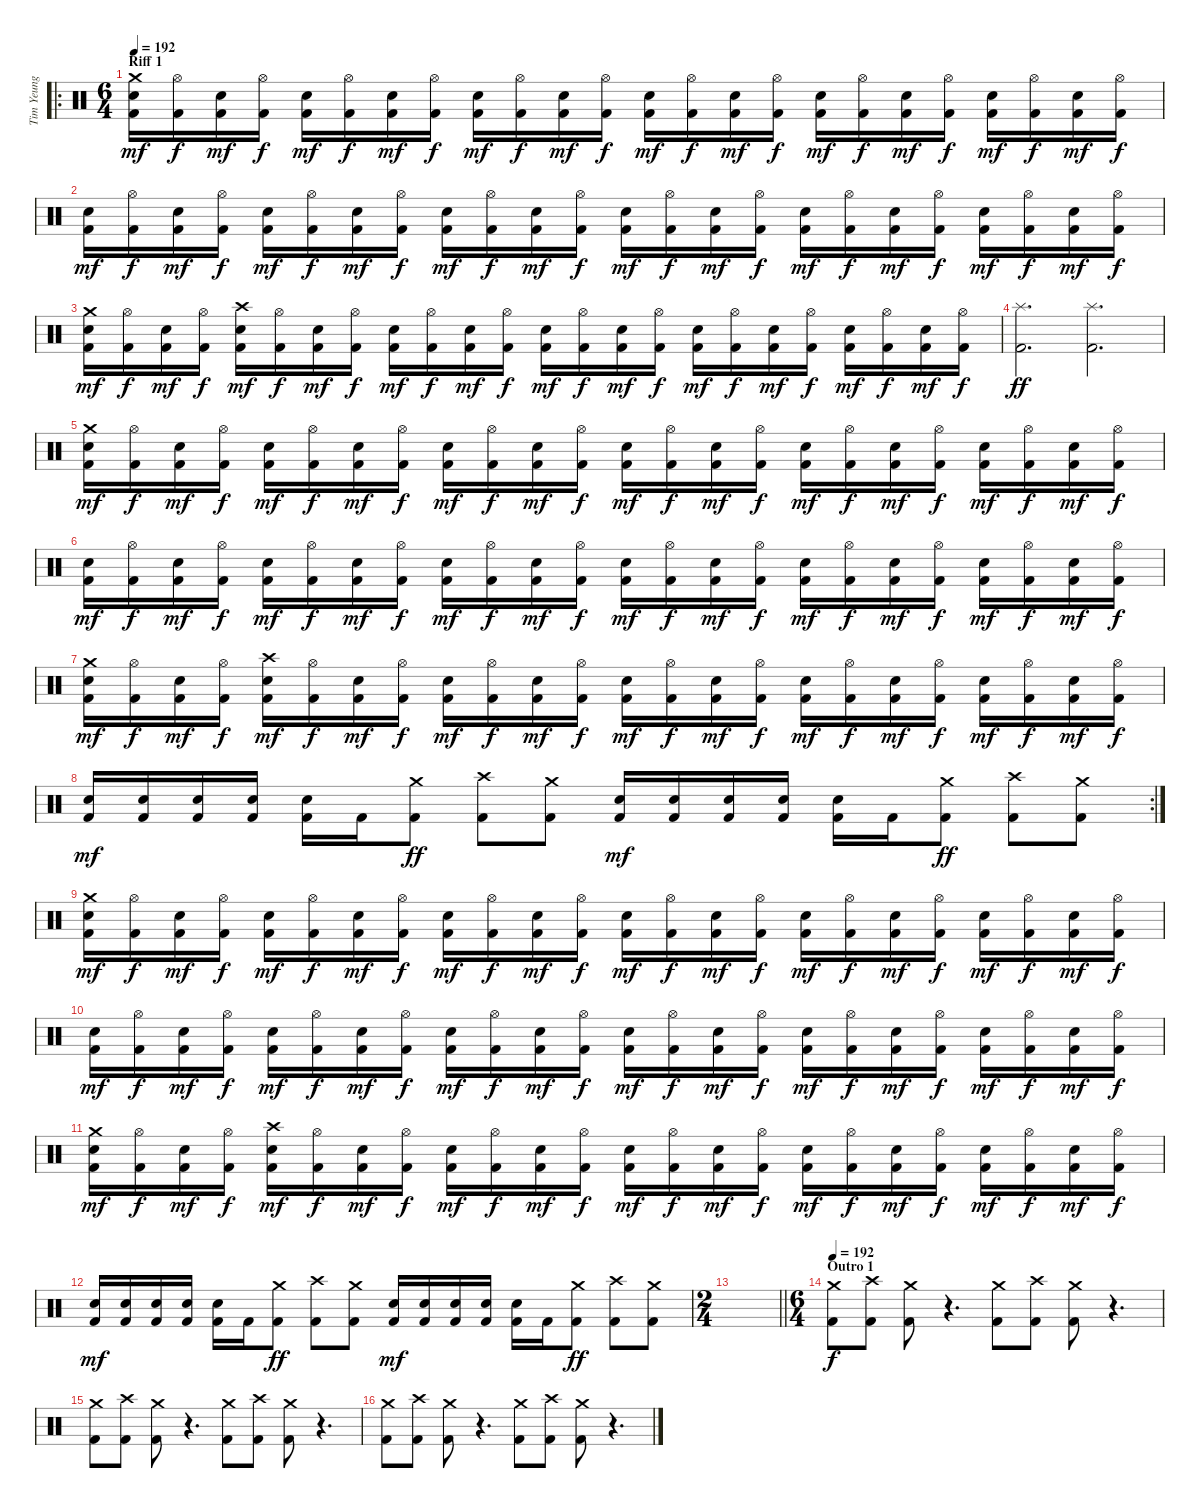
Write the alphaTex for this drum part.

\track ("Tim Yeung" "Tim Yeung") {instrument percussion}
\staff {score}
\articulation defaults
\ro
\ts (6 4)
\section ("" "Riff 1")
\tempo 192
\clef neutral
\ks c
("Crash medium (hit)" "Snare (hit) 2" "Kick (hit) 2").16{dy mf} ("Hi-Hat (open)" "Kick (hit) 2").16{dy f} ("Snare (hit) 2" "Kick (hit) 2").16{dy mf} ("Hi-Hat (open)" "Kick (hit) 2").16{dy f} ("Snare (hit) 2" "Kick (hit) 2").16{dy mf} ("Hi-Hat (open)" "Kick (hit) 2").16{dy f} ("Snare (hit) 2" "Kick (hit) 2").16{dy mf} ("Hi-Hat (open)" "Kick (hit) 2").16{dy f} ("Snare (hit) 2" "Kick (hit) 2").16{dy mf} ("Hi-Hat (open)" "Kick (hit) 2").16{dy f} ("Snare (hit) 2" "Kick (hit) 2").16{dy mf} ("Hi-Hat (open)" "Kick (hit) 2").16{dy f} ("Snare (hit) 2" "Kick (hit) 2").16{dy mf} ("Hi-Hat (open)" "Kick (hit) 2").16{dy f} ("Snare (hit) 2" "Kick (hit) 2").16{dy mf} ("Hi-Hat (open)" "Kick (hit) 2").16{dy f} ("Snare (hit) 2" "Kick (hit) 2").16{dy mf} ("Hi-Hat (open)" "Kick (hit) 2").16{dy f} ("Snare (hit) 2" "Kick (hit) 2").16{dy mf} ("Hi-Hat (open)" "Kick (hit) 2").16{dy f} ("Snare (hit) 2" "Kick (hit) 2").16{dy mf} ("Hi-Hat (open)" "Kick (hit) 2").16{dy f} ("Snare (hit) 2" "Kick (hit) 2").16{dy mf} ("Hi-Hat (open)" "Kick (hit) 2").16{dy f} |
("Snare (hit) 2" "Kick (hit) 2").16{dy mf} ("Hi-Hat (open)" "Kick (hit) 2").16{dy f} ("Snare (hit) 2" "Kick (hit) 2").16{dy mf} ("Hi-Hat (open)" "Kick (hit) 2").16{dy f} ("Snare (hit) 2" "Kick (hit) 2").16{dy mf} ("Hi-Hat (open)" "Kick (hit) 2").16{dy f} ("Snare (hit) 2" "Kick (hit) 2").16{dy mf} ("Hi-Hat (open)" "Kick (hit) 2").16{dy f} ("Snare (hit) 2" "Kick (hit) 2").16{dy mf} ("Hi-Hat (open)" "Kick (hit) 2").16{dy f} ("Snare (hit) 2" "Kick (hit) 2").16{dy mf} ("Hi-Hat (open)" "Kick (hit) 2").16{dy f} ("Snare (hit) 2" "Kick (hit) 2").16{dy mf} ("Hi-Hat (open)" "Kick (hit) 2").16{dy f} ("Snare (hit) 2" "Kick (hit) 2").16{dy mf} ("Hi-Hat (open)" "Kick (hit) 2").16{dy f} ("Snare (hit) 2" "Kick (hit) 2").16{dy mf} ("Hi-Hat (open)" "Kick (hit) 2").16{dy f} ("Snare (hit) 2" "Kick (hit) 2").16{dy mf} ("Hi-Hat (open)" "Kick (hit) 2").16{dy f} ("Snare (hit) 2" "Kick (hit) 2").16{dy mf} ("Hi-Hat (open)" "Kick (hit) 2").16{dy f} ("Snare (hit) 2" "Kick (hit) 2").16{dy mf} ("Hi-Hat (open)" "Kick (hit) 2").16{dy f} |
("Crash medium (hit)" "Snare (hit) 2" "Kick (hit) 2").16{dy mf} ("Hi-Hat (open)" "Kick (hit) 2").16{dy f} ("Snare (hit) 2" "Kick (hit) 2").16{dy mf} ("Hi-Hat (open)" "Kick (hit) 2").16{dy f} ("Crash high (hit)" "Snare (hit) 2" "Kick (hit) 2").16{dy mf} ("Hi-Hat (open)" "Kick (hit) 2").16{dy f} ("Snare (hit) 2" "Kick (hit) 2").16{dy mf} ("Hi-Hat (open)" "Kick (hit) 2").16{dy f} ("Snare (hit) 2" "Kick (hit) 2").16{dy mf} ("Hi-Hat (open)" "Kick (hit) 2").16{dy f} ("Snare (hit) 2" "Kick (hit) 2").16{dy mf} ("Hi-Hat (open)" "Kick (hit) 2").16{dy f} ("Snare (hit) 2" "Kick (hit) 2").16{dy mf} ("Hi-Hat (open)" "Kick (hit) 2").16{dy f} ("Snare (hit) 2" "Kick (hit) 2").16{dy mf} ("Hi-Hat (open)" "Kick (hit) 2").16{dy f} ("Snare (hit) 2" "Kick (hit) 2").16{dy mf} ("Hi-Hat (open)" "Kick (hit) 2").16{dy f} ("Snare (hit) 2" "Kick (hit) 2").16{dy mf} ("Hi-Hat (open)" "Kick (hit) 2").16{dy f} ("Snare (hit) 2" "Kick (hit) 2").16{dy mf} ("Hi-Hat (open)" "Kick (hit) 2").16{dy f} ("Snare (hit) 2" "Kick (hit) 2").16{dy mf} ("Hi-Hat (open)" "Kick (hit) 2").16{dy f} |
("Splash (hit)" "Kick (hit) 2").2{d dy ff} ("Splash (hit)" "Kick (hit) 2").2{d} |
("Crash medium (hit)" "Snare (hit) 2" "Kick (hit) 2").16{dy mf} ("Hi-Hat (open)" "Kick (hit) 2").16{dy f} ("Snare (hit) 2" "Kick (hit) 2").16{dy mf} ("Hi-Hat (open)" "Kick (hit) 2").16{dy f} ("Snare (hit) 2" "Kick (hit) 2").16{dy mf} ("Hi-Hat (open)" "Kick (hit) 2").16{dy f} ("Snare (hit) 2" "Kick (hit) 2").16{dy mf} ("Hi-Hat (open)" "Kick (hit) 2").16{dy f} ("Snare (hit) 2" "Kick (hit) 2").16{dy mf} ("Hi-Hat (open)" "Kick (hit) 2").16{dy f} ("Snare (hit) 2" "Kick (hit) 2").16{dy mf} ("Hi-Hat (open)" "Kick (hit) 2").16{dy f} ("Snare (hit) 2" "Kick (hit) 2").16{dy mf} ("Hi-Hat (open)" "Kick (hit) 2").16{dy f} ("Snare (hit) 2" "Kick (hit) 2").16{dy mf} ("Hi-Hat (open)" "Kick (hit) 2").16{dy f} ("Snare (hit) 2" "Kick (hit) 2").16{dy mf} ("Hi-Hat (open)" "Kick (hit) 2").16{dy f} ("Snare (hit) 2" "Kick (hit) 2").16{dy mf} ("Hi-Hat (open)" "Kick (hit) 2").16{dy f} ("Snare (hit) 2" "Kick (hit) 2").16{dy mf} ("Hi-Hat (open)" "Kick (hit) 2").16{dy f} ("Snare (hit) 2" "Kick (hit) 2").16{dy mf} ("Hi-Hat (open)" "Kick (hit) 2").16{dy f} |
("Snare (hit) 2" "Kick (hit) 2").16{dy mf} ("Hi-Hat (open)" "Kick (hit) 2").16{dy f} ("Snare (hit) 2" "Kick (hit) 2").16{dy mf} ("Hi-Hat (open)" "Kick (hit) 2").16{dy f} ("Snare (hit) 2" "Kick (hit) 2").16{dy mf} ("Hi-Hat (open)" "Kick (hit) 2").16{dy f} ("Snare (hit) 2" "Kick (hit) 2").16{dy mf} ("Hi-Hat (open)" "Kick (hit) 2").16{dy f} ("Snare (hit) 2" "Kick (hit) 2").16{dy mf} ("Hi-Hat (open)" "Kick (hit) 2").16{dy f} ("Snare (hit) 2" "Kick (hit) 2").16{dy mf} ("Hi-Hat (open)" "Kick (hit) 2").16{dy f} ("Snare (hit) 2" "Kick (hit) 2").16{dy mf} ("Hi-Hat (open)" "Kick (hit) 2").16{dy f} ("Snare (hit) 2" "Kick (hit) 2").16{dy mf} ("Hi-Hat (open)" "Kick (hit) 2").16{dy f} ("Snare (hit) 2" "Kick (hit) 2").16{dy mf} ("Hi-Hat (open)" "Kick (hit) 2").16{dy f} ("Snare (hit) 2" "Kick (hit) 2").16{dy mf} ("Hi-Hat (open)" "Kick (hit) 2").16{dy f} ("Snare (hit) 2" "Kick (hit) 2").16{dy mf} ("Hi-Hat (open)" "Kick (hit) 2").16{dy f} ("Snare (hit) 2" "Kick (hit) 2").16{dy mf} ("Hi-Hat (open)" "Kick (hit) 2").16{dy f} |
("Crash medium (hit)" "Snare (hit) 2" "Kick (hit) 2").16{dy mf} ("Hi-Hat (open)" "Kick (hit) 2").16{dy f} ("Snare (hit) 2" "Kick (hit) 2").16{dy mf} ("Hi-Hat (open)" "Kick (hit) 2").16{dy f} ("Crash high (hit)" "Snare (hit) 2" "Kick (hit) 2").16{dy mf} ("Hi-Hat (open)" "Kick (hit) 2").16{dy f} ("Snare (hit) 2" "Kick (hit) 2").16{dy mf} ("Hi-Hat (open)" "Kick (hit) 2").16{dy f} ("Snare (hit) 2" "Kick (hit) 2").16{dy mf} ("Hi-Hat (open)" "Kick (hit) 2").16{dy f} ("Snare (hit) 2" "Kick (hit) 2").16{dy mf} ("Hi-Hat (open)" "Kick (hit) 2").16{dy f} ("Snare (hit) 2" "Kick (hit) 2").16{dy mf} ("Hi-Hat (open)" "Kick (hit) 2").16{dy f} ("Snare (hit) 2" "Kick (hit) 2").16{dy mf} ("Hi-Hat (open)" "Kick (hit) 2").16{dy f} ("Snare (hit) 2" "Kick (hit) 2").16{dy mf} ("Hi-Hat (open)" "Kick (hit) 2").16{dy f} ("Snare (hit) 2" "Kick (hit) 2").16{dy mf} ("Hi-Hat (open)" "Kick (hit) 2").16{dy f} ("Snare (hit) 2" "Kick (hit) 2").16{dy mf} ("Hi-Hat (open)" "Kick (hit) 2").16{dy f} ("Snare (hit) 2" "Kick (hit) 2").16{dy mf} ("Hi-Hat (open)" "Kick (hit) 2").16{dy f} |
\rc 2
("Snare (hit) 2" "Kick (hit) 2").16{dy mf} ("Snare (hit) 2" "Kick (hit) 2").16 ("Snare (hit) 2" "Kick (hit) 2").16 ("Snare (hit) 2" "Kick (hit) 2").16 ("Snare (hit) 2" "Kick (hit) 2").16 "Kick (hit) 2".16 ("Crash medium (hit)" "Kick (hit) 2").8{dy ff} ("Crash high (hit)" "Kick (hit) 2").8 ("Crash medium (hit)" "Kick (hit) 2").8 ("Snare (hit) 2" "Kick (hit) 2").16{dy mf} ("Snare (hit) 2" "Kick (hit) 2").16 ("Snare (hit) 2" "Kick (hit) 2").16 ("Snare (hit) 2" "Kick (hit) 2").16 ("Snare (hit) 2" "Kick (hit) 2").16 "Kick (hit) 2".16 ("Crash medium (hit)" "Kick (hit) 2").8{dy ff} ("Crash high (hit)" "Kick (hit) 2").8 ("Crash medium (hit)" "Kick (hit) 2").8 |
("Crash medium (hit)" "Snare (hit) 2" "Kick (hit) 2").16{dy mf} ("Hi-Hat (open)" "Kick (hit) 2").16{dy f} ("Snare (hit) 2" "Kick (hit) 2").16{dy mf} ("Hi-Hat (open)" "Kick (hit) 2").16{dy f} ("Snare (hit) 2" "Kick (hit) 2").16{dy mf} ("Hi-Hat (open)" "Kick (hit) 2").16{dy f} ("Snare (hit) 2" "Kick (hit) 2").16{dy mf} ("Hi-Hat (open)" "Kick (hit) 2").16{dy f} ("Snare (hit) 2" "Kick (hit) 2").16{dy mf} ("Hi-Hat (open)" "Kick (hit) 2").16{dy f} ("Snare (hit) 2" "Kick (hit) 2").16{dy mf} ("Hi-Hat (open)" "Kick (hit) 2").16{dy f} ("Snare (hit) 2" "Kick (hit) 2").16{dy mf} ("Hi-Hat (open)" "Kick (hit) 2").16{dy f} ("Snare (hit) 2" "Kick (hit) 2").16{dy mf} ("Hi-Hat (open)" "Kick (hit) 2").16{dy f} ("Snare (hit) 2" "Kick (hit) 2").16{dy mf} ("Hi-Hat (open)" "Kick (hit) 2").16{dy f} ("Snare (hit) 2" "Kick (hit) 2").16{dy mf} ("Hi-Hat (open)" "Kick (hit) 2").16{dy f} ("Snare (hit) 2" "Kick (hit) 2").16{dy mf} ("Hi-Hat (open)" "Kick (hit) 2").16{dy f} ("Snare (hit) 2" "Kick (hit) 2").16{dy mf} ("Hi-Hat (open)" "Kick (hit) 2").16{dy f} |
("Snare (hit) 2" "Kick (hit) 2").16{dy mf} ("Hi-Hat (open)" "Kick (hit) 2").16{dy f} ("Snare (hit) 2" "Kick (hit) 2").16{dy mf} ("Hi-Hat (open)" "Kick (hit) 2").16{dy f} ("Snare (hit) 2" "Kick (hit) 2").16{dy mf} ("Hi-Hat (open)" "Kick (hit) 2").16{dy f} ("Snare (hit) 2" "Kick (hit) 2").16{dy mf} ("Hi-Hat (open)" "Kick (hit) 2").16{dy f} ("Snare (hit) 2" "Kick (hit) 2").16{dy mf} ("Hi-Hat (open)" "Kick (hit) 2").16{dy f} ("Snare (hit) 2" "Kick (hit) 2").16{dy mf} ("Hi-Hat (open)" "Kick (hit) 2").16{dy f} ("Snare (hit) 2" "Kick (hit) 2").16{dy mf} ("Hi-Hat (open)" "Kick (hit) 2").16{dy f} ("Snare (hit) 2" "Kick (hit) 2").16{dy mf} ("Hi-Hat (open)" "Kick (hit) 2").16{dy f} ("Snare (hit) 2" "Kick (hit) 2").16{dy mf} ("Hi-Hat (open)" "Kick (hit) 2").16{dy f} ("Snare (hit) 2" "Kick (hit) 2").16{dy mf} ("Hi-Hat (open)" "Kick (hit) 2").16{dy f} ("Snare (hit) 2" "Kick (hit) 2").16{dy mf} ("Hi-Hat (open)" "Kick (hit) 2").16{dy f} ("Snare (hit) 2" "Kick (hit) 2").16{dy mf} ("Hi-Hat (open)" "Kick (hit) 2").16{dy f} |
("Crash medium (hit)" "Snare (hit) 2" "Kick (hit) 2").16{dy mf} ("Hi-Hat (open)" "Kick (hit) 2").16{dy f} ("Snare (hit) 2" "Kick (hit) 2").16{dy mf} ("Hi-Hat (open)" "Kick (hit) 2").16{dy f} ("Crash high (hit)" "Snare (hit) 2" "Kick (hit) 2").16{dy mf} ("Hi-Hat (open)" "Kick (hit) 2").16{dy f} ("Snare (hit) 2" "Kick (hit) 2").16{dy mf} ("Hi-Hat (open)" "Kick (hit) 2").16{dy f} ("Snare (hit) 2" "Kick (hit) 2").16{dy mf} ("Hi-Hat (open)" "Kick (hit) 2").16{dy f} ("Snare (hit) 2" "Kick (hit) 2").16{dy mf} ("Hi-Hat (open)" "Kick (hit) 2").16{dy f} ("Snare (hit) 2" "Kick (hit) 2").16{dy mf} ("Hi-Hat (open)" "Kick (hit) 2").16{dy f} ("Snare (hit) 2" "Kick (hit) 2").16{dy mf} ("Hi-Hat (open)" "Kick (hit) 2").16{dy f} ("Snare (hit) 2" "Kick (hit) 2").16{dy mf} ("Hi-Hat (open)" "Kick (hit) 2").16{dy f} ("Snare (hit) 2" "Kick (hit) 2").16{dy mf} ("Hi-Hat (open)" "Kick (hit) 2").16{dy f} ("Snare (hit) 2" "Kick (hit) 2").16{dy mf} ("Hi-Hat (open)" "Kick (hit) 2").16{dy f} ("Snare (hit) 2" "Kick (hit) 2").16{dy mf} ("Hi-Hat (open)" "Kick (hit) 2").16{dy f} |
("Snare (hit) 2" "Kick (hit) 2").16{dy mf} ("Snare (hit) 2" "Kick (hit) 2").16 ("Snare (hit) 2" "Kick (hit) 2").16 ("Snare (hit) 2" "Kick (hit) 2").16 ("Snare (hit) 2" "Kick (hit) 2").16 "Kick (hit) 2".16 ("Crash medium (hit)" "Kick (hit) 2").8{dy ff} ("Crash high (hit)" "Kick (hit) 2").8 ("Crash medium (hit)" "Kick (hit) 2").8 ("Snare (hit) 2" "Kick (hit) 2").16{dy mf} ("Snare (hit) 2" "Kick (hit) 2").16 ("Snare (hit) 2" "Kick (hit) 2").16 ("Snare (hit) 2" "Kick (hit) 2").16 ("Snare (hit) 2" "Kick (hit) 2").16 "Kick (hit) 2".16 ("Crash medium (hit)" "Kick (hit) 2").8{dy ff} ("Crash high (hit)" "Kick (hit) 2").8 ("Crash medium (hit)" "Kick (hit) 2").8 |
\ts (2 4)
\barLineRight lightlight
|
\ts (6 4)
\section ("" "Outro 1")
\tempo 192
("Crash medium (hit)" "Kick (hit) 2").8{dy f} ("Crash high (hit)" "Kick (hit) 2").8 ("Crash medium (hit)" "Kick (hit) 2").8 r.4{d} ("Crash medium (hit)" "Kick (hit) 2").8 ("Crash high (hit)" "Kick (hit) 2").8 ("Crash medium (hit)" "Kick (hit) 2").8 r.4{d} |
("Crash medium (hit)" "Kick (hit) 2").8 ("Crash high (hit)" "Kick (hit) 2").8 ("Crash medium (hit)" "Kick (hit) 2").8 r.4{d} ("Crash medium (hit)" "Kick (hit) 2").8 ("Crash high (hit)" "Kick (hit) 2").8 ("Crash medium (hit)" "Kick (hit) 2").8 r.4{d} |
("Crash medium (hit)" "Kick (hit) 2").8 ("Crash high (hit)" "Kick (hit) 2").8 ("Crash medium (hit)" "Kick (hit) 2").8 r.4{d} ("Crash medium (hit)" "Kick (hit) 2").8 ("Crash high (hit)" "Kick (hit) 2").8 ("Crash medium (hit)" "Kick (hit) 2").8 r.4{d}
